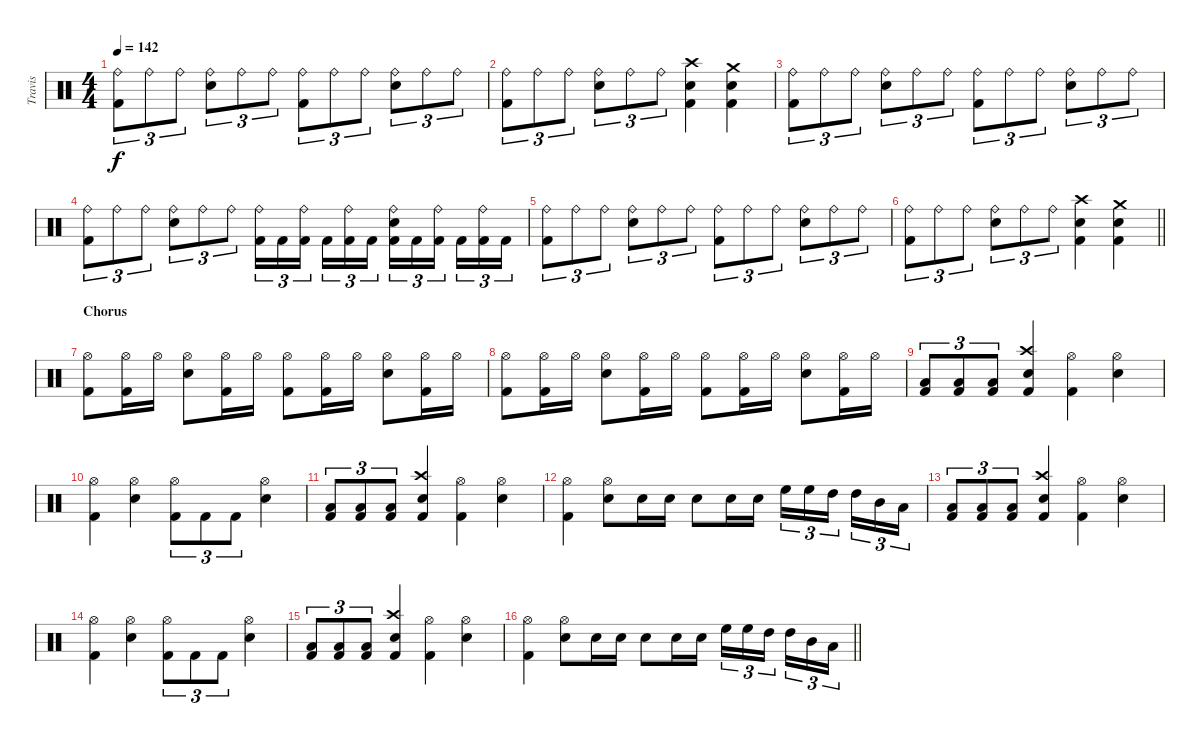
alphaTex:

\track ("Travis" "Travis") {instrument percussion}
\staff {score}
\articulation defaults
\ts (4 4)
\tempo 142
\clef neutral
\ks c
("Ride (bell)" "Kick (hit) 2").8{tu (3 2) dy f} "Ride (bell)".8{tu (3 2)} "Ride (bell)".8{tu (3 2)} ("Ride (bell)" "Electric Snare (hit)").8{tu (3 2)} "Ride (bell)".8{tu (3 2)} "Ride (bell)".8{tu (3 2)} ("Ride (bell)" "Kick (hit) 2").8{tu (3 2)} "Ride (bell)".8{tu (3 2)} "Ride (bell)".8{tu (3 2)} ("Ride (bell)" "Electric Snare (hit)").8{tu (3 2)} "Ride (bell)".8{tu (3 2)} "Ride (bell)".8{tu (3 2)} |
("Ride (bell)" "Kick (hit) 2").8{tu (3 2)} "Ride (bell)".8{tu (3 2)} "Ride (bell)".8{tu (3 2)} ("Ride (bell)" "Electric Snare (hit)").8{tu (3 2)} "Ride (bell)".8{tu (3 2)} "Ride (bell)".8{tu (3 2)} ("Crash high (hit)" "Electric Snare (hit)" "Kick (hit) 2").4 ("Crash medium (hit)" "Electric Snare (hit)" "Kick (hit) 2").4 |
("Ride (bell)" "Kick (hit) 2").8{tu (3 2)} "Ride (bell)".8{tu (3 2)} "Ride (bell)".8{tu (3 2)} ("Ride (bell)" "Electric Snare (hit)").8{tu (3 2)} "Ride (bell)".8{tu (3 2)} "Ride (bell)".8{tu (3 2)} ("Ride (bell)" "Kick (hit) 2").8{tu (3 2)} "Ride (bell)".8{tu (3 2)} "Ride (bell)".8{tu (3 2)} ("Ride (bell)" "Electric Snare (hit)").8{tu (3 2)} "Ride (bell)".8{tu (3 2)} "Ride (bell)".8{tu (3 2)} |
("Ride (bell)" "Kick (hit) 2").8{tu (3 2)} "Ride (bell)".8{tu (3 2)} "Ride (bell)".8{tu (3 2)} ("Ride (bell)" "Electric Snare (hit)").8{tu (3 2)} "Ride (bell)".8{tu (3 2)} "Ride (bell)".8{tu (3 2)} ("Ride (bell)" "Kick (hit) 2").16{tu (3 2)} "Kick (hit) 2".16{tu (3 2)} ("Ride (bell)" "Kick (hit) 2").16{tu (3 2) beam splitsecondary} "Kick (hit) 2".16{tu (3 2)} ("Ride (bell)" "Kick (hit) 2").16{tu (3 2)} "Kick (hit) 2".16{tu (3 2)} ("Ride (bell)" "Electric Snare (hit)" "Kick (hit) 2").16{tu (3 2)} "Kick (hit) 2".16{tu (3 2)} ("Ride (bell)" "Kick (hit) 2").16{tu (3 2) beam splitsecondary} "Kick (hit) 2".16{tu (3 2)} ("Ride (bell)" "Kick (hit) 2").16{tu (3 2)} "Kick (hit) 2".16{tu (3 2)} |
("Ride (bell)" "Kick (hit) 2").8{tu (3 2)} "Ride (bell)".8{tu (3 2)} "Ride (bell)".8{tu (3 2)} ("Ride (bell)" "Electric Snare (hit)").8{tu (3 2)} "Ride (bell)".8{tu (3 2)} "Ride (bell)".8{tu (3 2)} ("Ride (bell)" "Kick (hit) 2").8{tu (3 2)} "Ride (bell)".8{tu (3 2)} "Ride (bell)".8{tu (3 2)} ("Ride (bell)" "Electric Snare (hit)").8{tu (3 2)} "Ride (bell)".8{tu (3 2)} "Ride (bell)".8{tu (3 2)} |
\barLineRight lightlight
("Ride (bell)" "Kick (hit) 2").8{tu (3 2)} "Ride (bell)".8{tu (3 2)} "Ride (bell)".8{tu (3 2)} ("Ride (bell)" "Electric Snare (hit)").8{tu (3 2)} "Ride (bell)".8{tu (3 2)} "Ride (bell)".8{tu (3 2)} ("Crash high (hit)" "Electric Snare (hit)" "Kick (hit) 2").4 ("Crash medium (hit)" "Electric Snare (hit)" "Kick (hit) 2").4 |
\section ("" "Chorus")
("Hi-Hat (open)" "Kick (hit) 2").8 ("Hi-Hat (open)" "Kick (hit) 2").16 "Hi-Hat (open)".16 ("Hi-Hat (open)" "Snare (hit) 2").8 ("Hi-Hat (open)" "Kick (hit) 2").16 "Hi-Hat (open)".16 ("Hi-Hat (open)" "Kick (hit) 2").8 ("Hi-Hat (open)" "Kick (hit) 2").16 "Hi-Hat (open)".16 ("Hi-Hat (open)" "Snare (hit) 2").8 ("Hi-Hat (open)" "Kick (hit) 2").16 "Hi-Hat (open)".16 |
("Hi-Hat (open)" "Kick (hit) 2").8 ("Hi-Hat (open)" "Kick (hit) 2").16 "Hi-Hat (open)".16 ("Hi-Hat (open)" "Snare (hit) 2").8 ("Hi-Hat (open)" "Kick (hit) 2").16 "Hi-Hat (open)".16 ("Hi-Hat (open)" "Kick (hit) 2").8 ("Hi-Hat (open)" "Kick (hit) 2").16 "Hi-Hat (open)".16 ("Hi-Hat (open)" "Snare (hit) 2").8 ("Hi-Hat (open)" "Kick (hit) 2").16 "Hi-Hat (open)".16 |
("Low Tom (hit)" "Kick (hit) 2").8{tu (3 2)} ("Low Tom (hit)" "Kick (hit) 2").8{tu (3 2)} ("Low Tom (hit)" "Kick (hit) 2").8{tu (3 2)} ("Crash high (hit)" "Snare (hit) 2" "Kick (hit) 2").4 ("Hi-Hat (open)" "Kick (hit) 2").4 ("Hi-Hat (open)" "Snare (hit) 2").4 |
("Hi-Hat (open)" "Kick (hit) 2").4 ("Hi-Hat (open)" "Snare (hit) 2").4 ("Hi-Hat (open)" "Kick (hit) 2").8{tu (3 2)} "Kick (hit) 2".8{tu (3 2)} "Kick (hit) 2".8{tu (3 2)} ("Hi-Hat (open)" "Snare (hit) 2").4 |
("Low Tom (hit)" "Kick (hit) 2").8{tu (3 2)} ("Low Tom (hit)" "Kick (hit) 2").8{tu (3 2)} ("Low Tom (hit)" "Kick (hit) 2").8{tu (3 2)} ("Crash high (hit)" "Snare (hit) 2" "Kick (hit) 2").4 ("Hi-Hat (open)" "Kick (hit) 2").4 ("Hi-Hat (open)" "Snare (hit) 2").4 |
("Hi-Hat (open)" "Kick (hit) 2").4 ("Hi-Hat (open)" "Snare (hit) 2").8 "Snare (hit) 2".16 "Snare (hit) 2".16 "Snare (hit) 2".8 "Snare (hit) 2".16 "Snare (hit) 2".16 "High Floor Tom (hit)".16{tu (3 2)} "High Floor Tom (hit)".16{tu (3 2)} "High Tom (hit)".16{tu (3 2) beam splitsecondary} "High Tom (hit)".16{tu (3 2)} "Mid Tom (hit)".16{tu (3 2)} "Low Tom (hit)".16{tu (3 2)} |
("Low Tom (hit)" "Kick (hit) 2").8{tu (3 2)} ("Low Tom (hit)" "Kick (hit) 2").8{tu (3 2)} ("Low Tom (hit)" "Kick (hit) 2").8{tu (3 2)} ("Crash high (hit)" "Snare (hit) 2" "Kick (hit) 2").4 ("Hi-Hat (open)" "Kick (hit) 2").4 ("Hi-Hat (open)" "Snare (hit) 2").4 |
("Hi-Hat (open)" "Kick (hit) 2").4 ("Hi-Hat (open)" "Snare (hit) 2").4 ("Hi-Hat (open)" "Kick (hit) 2").8{tu (3 2)} "Kick (hit) 2".8{tu (3 2)} "Kick (hit) 2".8{tu (3 2)} ("Hi-Hat (open)" "Snare (hit) 2").4 |
("Low Tom (hit)" "Kick (hit) 2").8{tu (3 2)} ("Low Tom (hit)" "Kick (hit) 2").8{tu (3 2)} ("Low Tom (hit)" "Kick (hit) 2").8{tu (3 2)} ("Crash high (hit)" "Snare (hit) 2" "Kick (hit) 2").4 ("Hi-Hat (open)" "Kick (hit) 2").4 ("Hi-Hat (open)" "Snare (hit) 2").4 |
\barLineRight lightlight
("Hi-Hat (open)" "Kick (hit) 2").4 ("Hi-Hat (open)" "Snare (hit) 2").8 "Snare (hit) 2".16 "Snare (hit) 2".16 "Snare (hit) 2".8 "Snare (hit) 2".16 "Snare (hit) 2".16 "High Floor Tom (hit)".16{tu (3 2)} "High Floor Tom (hit)".16{tu (3 2)} "High Tom (hit)".16{tu (3 2) beam splitsecondary} "High Tom (hit)".16{tu (3 2)} "Mid Tom (hit)".16{tu (3 2)} "Low Tom (hit)".16{tu (3 2)}
